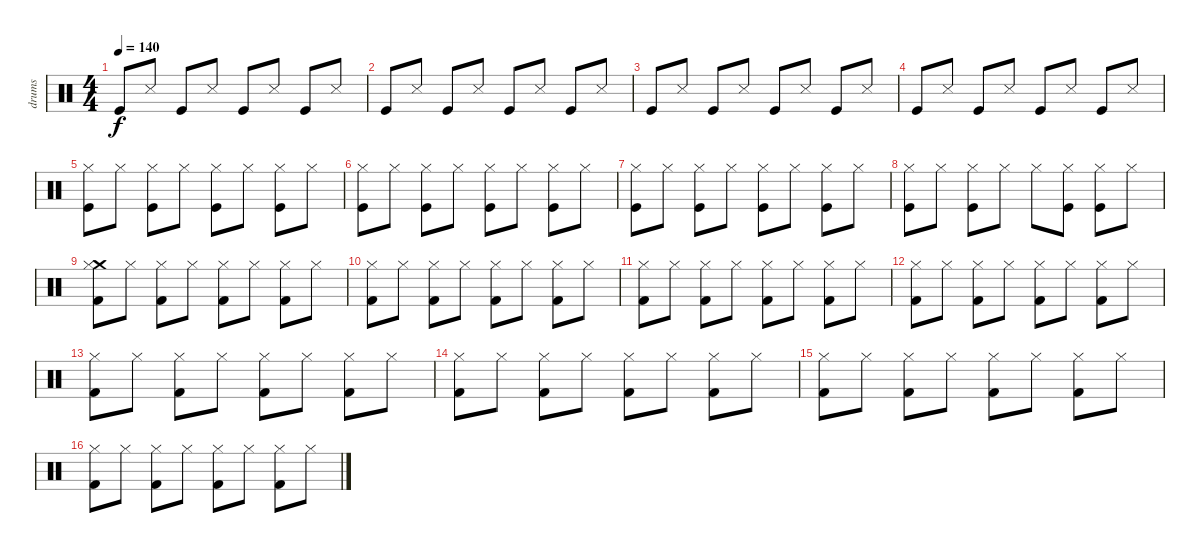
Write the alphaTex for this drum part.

\track ("drums" "drums") {instrument percussion}
\staff {score}
\articulation defaults
\ts (4 4)
\tempo 140
\clef neutral
\ks c "Kick (hit)".8{dy f} "Snare (side stick) 3".8 "Kick (hit)".8 "Snare (side stick) 3".8 "Kick (hit)".8 "Snare (side stick) 3".8 "Kick (hit)".8 "Snare (side stick) 3".8
|
"Kick (hit)".8 "Snare (side stick) 3".8 "Kick (hit)".8 "Snare (side stick) 3".8 "Kick (hit)".8 "Snare (side stick) 3".8 "Kick (hit)".8 "Snare (side stick) 3".8 |
"Kick (hit)".8 "Snare (side stick) 3".8 "Kick (hit)".8 "Snare (side stick) 3".8 "Kick (hit)".8 "Snare (side stick) 3".8 "Kick (hit)".8 "Snare (side stick) 3".8 |
"Kick (hit)".8 "Snare (side stick) 3".8 "Kick (hit)".8 "Snare (side stick) 3".8 "Kick (hit)".8 "Snare (side stick) 3".8 "Kick (hit)".8 "Snare (side stick) 3".8 |
("Hi-Hat (closed)" "Kick (hit)").8 "Hi-Hat (closed)".8 ("Hi-Hat (closed)" "Kick (hit)").8 "Hi-Hat (closed)".8 ("Hi-Hat (closed)" "Kick (hit)").8 "Hi-Hat (closed)".8 ("Hi-Hat (closed)" "Kick (hit)").8 "Hi-Hat (closed)".8 |
("Hi-Hat (closed)" "Kick (hit)").8 "Hi-Hat (closed)".8 ("Hi-Hat (closed)" "Kick (hit)").8 "Hi-Hat (closed)".8 ("Hi-Hat (closed)" "Kick (hit)").8 "Hi-Hat (closed)".8 ("Hi-Hat (closed)" "Kick (hit)").8 "Hi-Hat (closed)".8 |
("Hi-Hat (closed)" "Kick (hit)").8 "Hi-Hat (closed)".8 ("Hi-Hat (closed)" "Kick (hit)").8 "Hi-Hat (closed)".8 ("Hi-Hat (closed)" "Kick (hit)").8 "Hi-Hat (closed)".8 ("Hi-Hat (closed)" "Kick (hit)").8 "Hi-Hat (closed)".8 |
("Hi-Hat (closed)" "Kick (hit)").8 "Hi-Hat (closed)".8 ("Hi-Hat (closed)" "Kick (hit)").8 "Hi-Hat (closed)".8 "Hi-Hat (closed)".8 ("Hi-Hat (closed)" "Kick (hit)").8 ("Hi-Hat (closed)" "Kick (hit)").8 "Hi-Hat (closed)".8 |
("Crash medium (hit)" "Hi-Hat (closed)" "Kick (hit) 2").8 "Hi-Hat (closed)".8 ("Hi-Hat (closed)" "Kick (hit) 2").8 "Hi-Hat (closed)".8 ("Hi-Hat (closed)" "Kick (hit) 2").8 "Hi-Hat (closed)".8 ("Hi-Hat (closed)" "Kick (hit) 2").8 "Hi-Hat (closed)".8 |
("Hi-Hat (closed)" "Kick (hit) 2").8 "Hi-Hat (closed)".8 ("Hi-Hat (closed)" "Kick (hit) 2").8 "Hi-Hat (closed)".8 ("Hi-Hat (closed)" "Kick (hit) 2").8 "Hi-Hat (closed)".8 ("Hi-Hat (closed)" "Kick (hit) 2").8 "Hi-Hat (closed)".8 |
("Hi-Hat (closed)" "Kick (hit) 2").8 "Hi-Hat (closed)".8 ("Hi-Hat (closed)" "Kick (hit) 2").8 "Hi-Hat (closed)".8 ("Hi-Hat (closed)" "Kick (hit) 2").8 "Hi-Hat (closed)".8 ("Hi-Hat (closed)" "Kick (hit) 2").8 "Hi-Hat (closed)".8 |
("Hi-Hat (closed)" "Kick (hit) 2").8 "Hi-Hat (closed)".8 ("Hi-Hat (closed)" "Kick (hit) 2").8 "Hi-Hat (closed)".8 ("Hi-Hat (closed)" "Kick (hit) 2").8 "Hi-Hat (closed)".8 ("Hi-Hat (closed)" "Kick (hit) 2").8 "Hi-Hat (closed)".8 |
("Hi-Hat (closed)" "Kick (hit) 2").8 "Hi-Hat (closed)".8 ("Hi-Hat (closed)" "Kick (hit) 2").8 "Hi-Hat (closed)".8 ("Hi-Hat (closed)" "Kick (hit) 2").8 "Hi-Hat (closed)".8 ("Hi-Hat (closed)" "Kick (hit) 2").8 "Hi-Hat (closed)".8 |
("Hi-Hat (closed)" "Kick (hit) 2").8 "Hi-Hat (closed)".8 ("Hi-Hat (closed)" "Kick (hit) 2").8 "Hi-Hat (closed)".8 ("Hi-Hat (closed)" "Kick (hit) 2").8 "Hi-Hat (closed)".8 ("Hi-Hat (closed)" "Kick (hit) 2").8 "Hi-Hat (closed)".8 |
("Hi-Hat (closed)" "Kick (hit) 2").8 "Hi-Hat (closed)".8 ("Hi-Hat (closed)" "Kick (hit) 2").8 "Hi-Hat (closed)".8 ("Hi-Hat (closed)" "Kick (hit) 2").8 "Hi-Hat (closed)".8 ("Hi-Hat (closed)" "Kick (hit) 2").8 "Hi-Hat (closed)".8 |
("Hi-Hat (closed)" "Kick (hit) 2").8 "Hi-Hat (closed)".8 ("Hi-Hat (closed)" "Kick (hit) 2").8 "Hi-Hat (closed)".8 ("Hi-Hat (closed)" "Kick (hit) 2").8 "Hi-Hat (closed)".8 ("Hi-Hat (closed)" "Kick (hit) 2").8 "Hi-Hat (closed)".8
